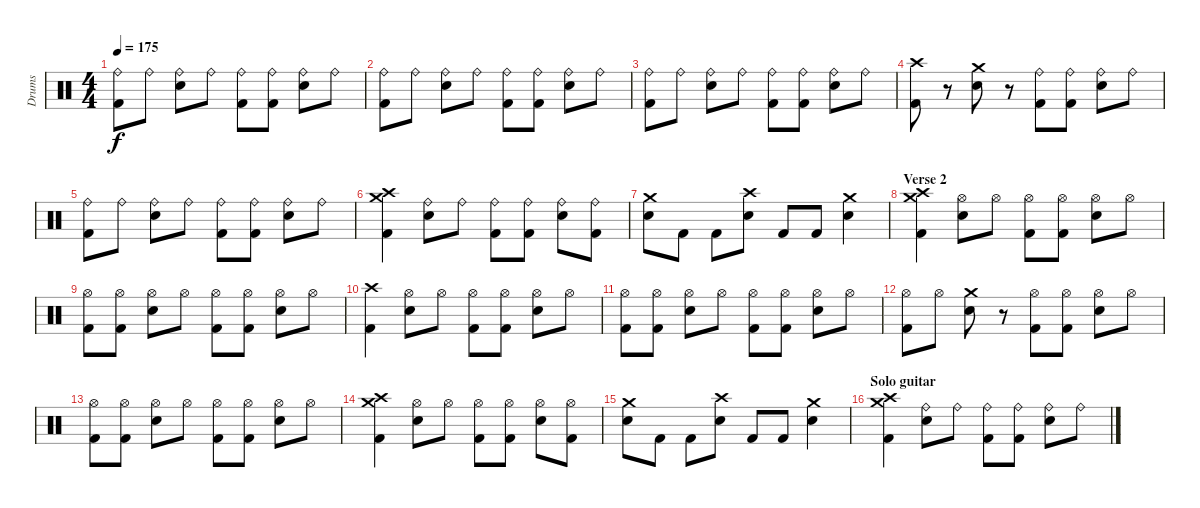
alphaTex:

\track ("Drums" "Drums") {instrument percussion}
\staff {score}
\articulation defaults
\ts (4 4)
\tempo 175
\clef neutral
\ks c
("Ride (bell)" "Kick (hit) 2").8{dy f} "Ride (bell)".8 ("Ride (bell)" "Electric Snare (hit)").8 "Ride (bell)".8 ("Ride (bell)" "Kick (hit) 2").8 ("Ride (bell)" "Kick (hit) 2").8 ("Ride (bell)" "Electric Snare (hit)").8 "Ride (bell)".8 |
("Ride (bell)" "Kick (hit) 2").8 "Ride (bell)".8 ("Ride (bell)" "Electric Snare (hit)").8 "Ride (bell)".8 ("Ride (bell)" "Kick (hit) 2").8 ("Ride (bell)" "Kick (hit) 2").8 ("Ride (bell)" "Electric Snare (hit)").8 "Ride (bell)".8 |
("Ride (bell)" "Kick (hit) 2").8 "Ride (bell)".8 ("Ride (bell)" "Electric Snare (hit)").8 "Ride (bell)".8 ("Ride (bell)" "Kick (hit) 2").8 ("Ride (bell)" "Kick (hit) 2").8 ("Ride (bell)" "Electric Snare (hit)").8 "Ride (bell)".8 |
("Crash high (hit)" "Kick (hit) 2").8 r.8 ("Crash medium (hit)" "Electric Snare (hit)").8 r.8 ("Ride (bell)" "Kick (hit) 2").8 ("Ride (bell)" "Kick (hit) 2").8 ("Ride (bell)" "Electric Snare (hit)").8 "Ride (bell)".8 |
("Ride (bell)" "Kick (hit) 2").8 "Ride (bell)".8 ("Ride (bell)" "Electric Snare (hit)").8 "Ride (bell)".8 ("Ride (bell)" "Kick (hit) 2").8 ("Ride (bell)" "Kick (hit) 2").8 ("Ride (bell)" "Electric Snare (hit)").8 "Ride (bell)".8 |
("Crash high (hit)" "Crash medium (hit)" "Kick (hit) 2").4 ("Ride (bell)" "Electric Snare (hit)").8 "Ride (bell)".8 ("Ride (bell)" "Kick (hit) 2").8 ("Ride (bell)" "Kick (hit) 2").8 ("Ride (bell)" "Electric Snare (hit)").8 ("Ride (bell)" "Kick (hit) 2").8 |
("Crash medium (hit)" "Electric Snare (hit)").8 "Kick (hit) 2".8 "Kick (hit) 2".8 ("Crash high (hit)" "Electric Snare (hit)").8 "Kick (hit) 2".8 "Kick (hit) 2".8 ("Crash medium (hit)" "Electric Snare (hit)").4 |
\section ("" "Verse 2")
("Crash high (hit)" "Crash medium (hit)" "Kick (hit) 2").4 ("Hi-Hat (open)" "Electric Snare (hit)").8 "Hi-Hat (open)".8 ("Hi-Hat (open)" "Kick (hit) 2").8 ("Hi-Hat (open)" "Kick (hit) 2").8 ("Hi-Hat (open)" "Electric Snare (hit)").8 "Hi-Hat (open)".8 |
("Hi-Hat (open)" "Kick (hit) 2").8 ("Hi-Hat (open)" "Kick (hit) 2").8 ("Hi-Hat (open)" "Electric Snare (hit)").8 "Hi-Hat (open)".8 ("Hi-Hat (open)" "Kick (hit) 2").8 ("Hi-Hat (open)" "Kick (hit) 2").8 ("Hi-Hat (open)" "Electric Snare (hit)").8 "Hi-Hat (open)".8 |
("Crash high (hit)" "Kick (hit) 2").4 ("Hi-Hat (open)" "Electric Snare (hit)").8 "Hi-Hat (open)".8 ("Hi-Hat (open)" "Kick (hit) 2").8 ("Hi-Hat (open)" "Kick (hit) 2").8 ("Hi-Hat (open)" "Electric Snare (hit)").8 "Hi-Hat (open)".8 |
("Hi-Hat (open)" "Kick (hit) 2").8 ("Hi-Hat (open)" "Kick (hit) 2").8 ("Hi-Hat (open)" "Electric Snare (hit)").8 "Hi-Hat (open)".8 ("Hi-Hat (open)" "Kick (hit) 2").8 ("Hi-Hat (open)" "Kick (hit) 2").8 ("Hi-Hat (open)" "Electric Snare (hit)").8 "Hi-Hat (open)".8 |
("Hi-Hat (open)" "Kick (hit) 2").8 "Hi-Hat (open)".8 ("Crash medium (hit)" "Electric Snare (hit)").8 r.8 ("Hi-Hat (open)" "Kick (hit) 2").8 ("Hi-Hat (open)" "Kick (hit) 2").8 ("Hi-Hat (open)" "Electric Snare (hit)").8 "Hi-Hat (open)".8 |
("Hi-Hat (open)" "Kick (hit) 2").8 ("Hi-Hat (open)" "Kick (hit) 2").8 ("Hi-Hat (open)" "Electric Snare (hit)").8 "Hi-Hat (open)".8 ("Hi-Hat (open)" "Kick (hit) 2").8 ("Hi-Hat (open)" "Kick (hit) 2").8 ("Hi-Hat (open)" "Electric Snare (hit)").8 "Hi-Hat (open)".8 |
("Crash high (hit)" "Crash medium (hit)" "Kick (hit) 2").4 ("Hi-Hat (open)" "Electric Snare (hit)").8 "Hi-Hat (open)".8 ("Hi-Hat (open)" "Kick (hit) 2").8 ("Hi-Hat (open)" "Kick (hit) 2").8 ("Hi-Hat (open)" "Electric Snare (hit)").8 ("Hi-Hat (open)" "Kick (hit) 2").8 |
("Crash medium (hit)" "Electric Snare (hit)").8 "Kick (hit) 2".8 "Kick (hit) 2".8 ("Crash high (hit)" "Electric Snare (hit)").8 "Kick (hit) 2".8 "Kick (hit) 2".8 ("Crash medium (hit)" "Electric Snare (hit)").4 |
\section ("" "Solo guitar")
("Crash high (hit)" "Crash medium (hit)" "Kick (hit) 2").4 ("Ride (bell)" "Electric Snare (hit)").8 "Ride (bell)".8 ("Ride (bell)" "Kick (hit) 2").8 ("Ride (bell)" "Kick (hit) 2").8 ("Ride (bell)" "Electric Snare (hit)").8 "Ride (bell)".8
